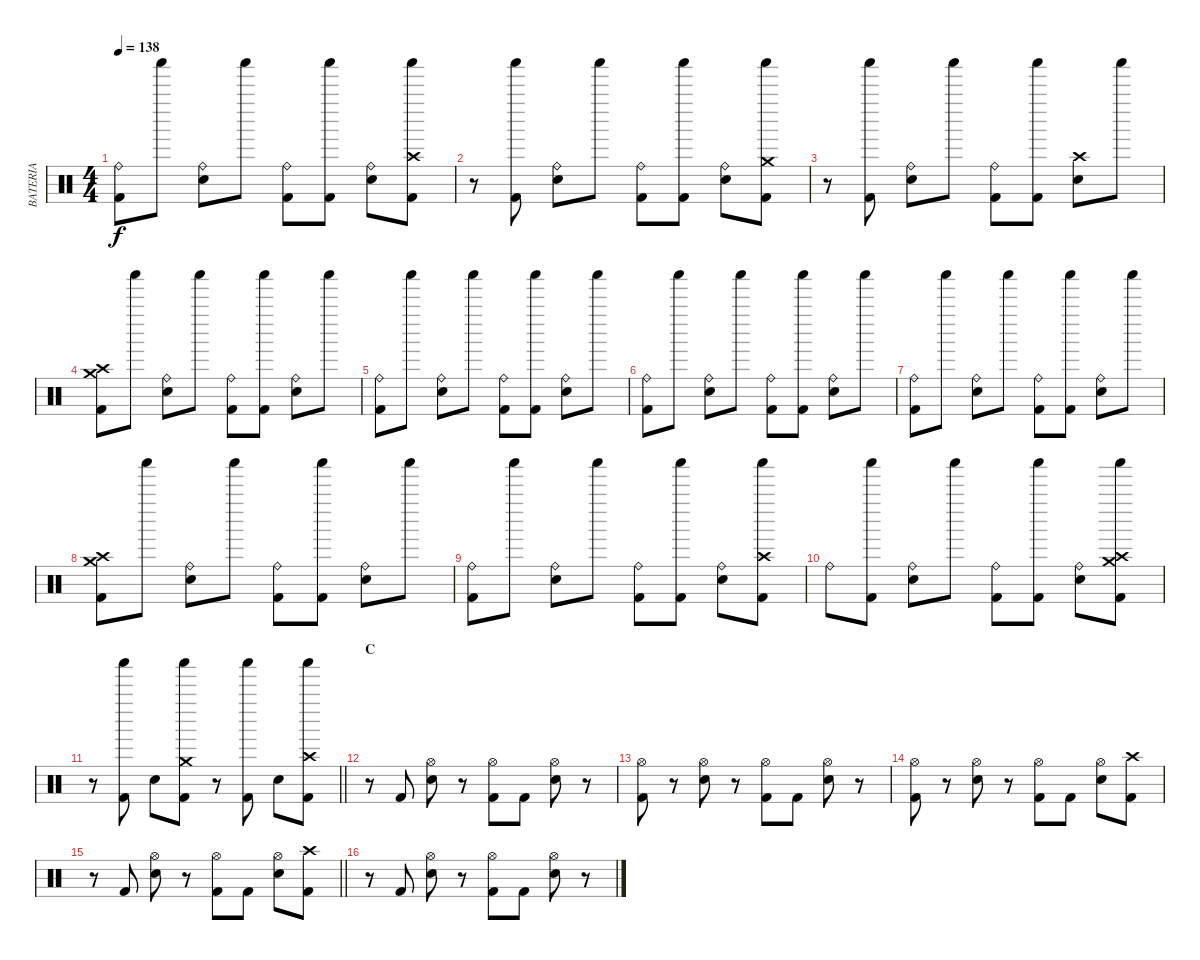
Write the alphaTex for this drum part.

\track ("BATERIA" "BATERIA") {instrument percussion}
\staff {score}
\articulation defaults
\ts (4 4)
\tempo 138
\clef neutral
\ks c
("Kick (hit) 2" "Ride (bell)").8{dy f} "Shaker (hit)".8 ("Electric Snare (hit)" "Ride (bell)").8 "Shaker (hit)".8 ("Kick (hit) 2" "Ride (bell)").8 ("Kick (hit) 2" "Shaker (hit)").8 ("Electric Snare (hit)" "Ride (bell)").8 ("Kick (hit) 2" "Shaker (hit)" "Crash high (hit)").8 |
r.8 ("Kick (hit) 2" "Shaker (hit)").8 ("Electric Snare (hit)" "Ride (bell)").8 "Shaker (hit)".8 ("Kick (hit) 2" "Ride (bell)").8 ("Kick (hit) 2" "Shaker (hit)").8 ("Electric Snare (hit)" "Ride (bell)").8 ("Kick (hit) 2" "Shaker (hit)" "Crash medium (hit)").8 |
r.8 ("Kick (hit) 2" "Shaker (hit)").8 ("Electric Snare (hit)" "Ride (bell)").8 "Shaker (hit)".8 ("Kick (hit) 2" "Ride (bell)").8 ("Kick (hit) 2" "Shaker (hit)").8 ("Electric Snare (hit)" "Crash high (hit)").8 "Shaker (hit)".8 |
("Kick (hit) 2" "Crash medium (hit)" "Crash high (hit)").8 "Shaker (hit)".8 ("Electric Snare (hit)" "Ride (bell)").8 "Shaker (hit)".8 ("Kick (hit) 2" "Ride (bell)").8 ("Kick (hit) 2" "Shaker (hit)").8 ("Electric Snare (hit)" "Ride (bell)").8 "Shaker (hit)".8 |
("Kick (hit) 2" "Ride (bell)").8 "Shaker (hit)".8 ("Electric Snare (hit)" "Ride (bell)").8 "Shaker (hit)".8 ("Kick (hit) 2" "Ride (bell)").8 ("Kick (hit) 2" "Shaker (hit)").8 ("Electric Snare (hit)" "Ride (bell)").8 "Shaker (hit)".8 |
("Kick (hit) 2" "Ride (bell)").8 "Shaker (hit)".8 ("Electric Snare (hit)" "Ride (bell)").8 "Shaker (hit)".8 ("Kick (hit) 2" "Ride (bell)").8 ("Kick (hit) 2" "Shaker (hit)").8 ("Electric Snare (hit)" "Ride (bell)").8 "Shaker (hit)".8 |
("Kick (hit) 2" "Ride (bell)").8 "Shaker (hit)".8 ("Electric Snare (hit)" "Ride (bell)").8 "Shaker (hit)".8 ("Kick (hit) 2" "Ride (bell)").8 ("Kick (hit) 2" "Shaker (hit)").8 ("Electric Snare (hit)" "Ride (bell)").8 "Shaker (hit)".8 |
("Kick (hit) 2" "Crash medium (hit)" "Crash high (hit)").8 "Shaker (hit)".8 ("Electric Snare (hit)" "Ride (bell)").8 "Shaker (hit)".8 ("Kick (hit) 2" "Ride (bell)").8 ("Kick (hit) 2" "Shaker (hit)").8 ("Electric Snare (hit)" "Ride (bell)").8 "Shaker (hit)".8 |
("Kick (hit) 2" "Ride (bell)").8 "Shaker (hit)".8 ("Electric Snare (hit)" "Ride (bell)").8 "Shaker (hit)".8 ("Kick (hit) 2" "Ride (bell)").8 ("Kick (hit) 2" "Shaker (hit)").8 ("Electric Snare (hit)" "Ride (bell)").8 ("Kick (hit) 2" "Shaker (hit)" "Crash high (hit)").8 |
"Ride (bell)".8 ("Kick (hit) 2" "Shaker (hit)").8 ("Electric Snare (hit)" "Ride (bell)").8 "Shaker (hit)".8 ("Kick (hit) 2" "Ride (bell)").8 ("Kick (hit) 2" "Shaker (hit)").8 ("Electric Snare (hit)" "Ride (bell)").8 ("Kick (hit) 2" "Shaker (hit)" "Crash high (hit)" "Crash medium (hit)").8 |
\barLineRight lightlight
r.8 ("Kick (hit) 2" "Shaker (hit)").8 "Electric Snare (hit)".8 ("Kick (hit) 2" "Shaker (hit)" "Crash medium (hit)").8 r.8 ("Kick (hit) 2" "Shaker (hit)").8 "Electric Snare (hit)".8 ("Kick (hit) 2" "Shaker (hit)" "Crash high (hit)").8 |
\section ("" "C")
r.8 "Kick (hit) 2".8 ("Electric Snare (hit)" "Hi-Hat (open)").8 r.8 ("Kick (hit) 2" "Hi-Hat (open)").8 "Kick (hit) 2".8 ("Electric Snare (hit)" "Hi-Hat (open)").8 r.8 |
("Kick (hit) 2" "Hi-Hat (open)").8 r.8 ("Electric Snare (hit)" "Hi-Hat (open)").8 r.8 ("Kick (hit) 2" "Hi-Hat (open)").8 "Kick (hit) 2".8 ("Electric Snare (hit)" "Hi-Hat (open)").8 r.8 |
("Kick (hit) 2" "Hi-Hat (open)").8 r.8 ("Electric Snare (hit)" "Hi-Hat (open)").8 r.8 ("Kick (hit) 2" "Hi-Hat (open)").8 "Kick (hit) 2".8 ("Electric Snare (hit)" "Hi-Hat (open)").8 ("Kick (hit) 2" "Crash high (hit)").8 |
\barLineRight lightlight
r.8 "Kick (hit) 2".8 ("Electric Snare (hit)" "Hi-Hat (open)").8 r.8 ("Kick (hit) 2" "Hi-Hat (open)").8 "Kick (hit) 2".8 ("Electric Snare (hit)" "Hi-Hat (open)").8 ("Kick (hit) 2" "Crash high (hit)").8 |
r.8 "Kick (hit) 2".8 ("Electric Snare (hit)" "Hi-Hat (open)").8 r.8 ("Kick (hit) 2" "Hi-Hat (open)").8 "Kick (hit) 2".8 ("Electric Snare (hit)" "Hi-Hat (open)").8 r.8
